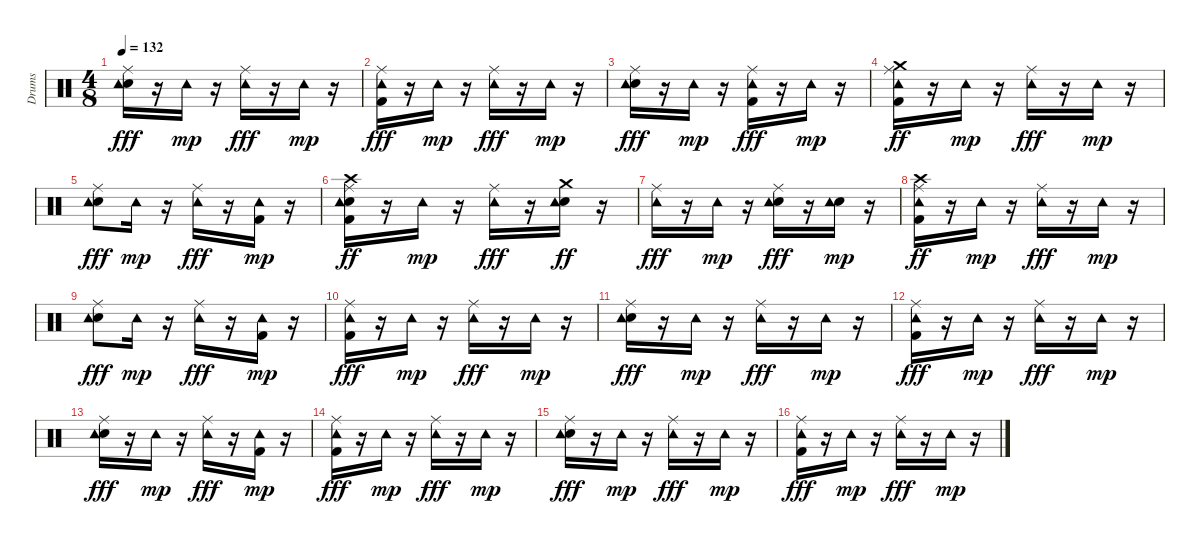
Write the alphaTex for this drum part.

\track ("Drums" "Drums") {instrument percussion}
\staff {score}
\articulation defaults
\ts (4 8)
\tempo 132
\clef neutral
\ks c
("Snare (hit) 2" "Ride (middle)" "Tambourine (hit)").16{dy fff} r.16 "Tambourine (hit)".16{dy mp} r.16 ("Ride (middle)" "Tambourine (hit)").16{dy fff} r.16 "Tambourine (hit)".16{dy mp} r.16 |
("Kick (hit) 2" "Ride (middle)" "Tambourine (hit)").16{dy fff} r.16 "Tambourine (hit)".16{dy mp} r.16 ("Ride (middle)" "Tambourine (hit)").16{dy fff} r.16 "Tambourine (hit)".16{dy mp} r.16 |
("Snare (hit) 2" "Ride (middle)" "Tambourine (hit)").16{dy fff} r.16 "Tambourine (hit)".16{dy mp} r.16 ("Kick (hit) 2" "Ride (middle)" "Tambourine (hit)").16{dy fff} r.16 "Tambourine (hit)".16{dy mp} r.16 |
("Kick (hit) 2" "Ride (middle)" "Tambourine (hit)" "Crash medium (hit)").16{dy ff} r.16 "Tambourine (hit)".16{dy mp} r.16 ("Ride (middle)" "Tambourine (hit)").16{dy fff} r.16 "Tambourine (hit)".16{dy mp} r.16 |
("Snare (hit) 2" "Ride (middle)" "Tambourine (hit)").8{dy fff} "Tambourine (hit)".16{dy mp} r.16 ("Ride (middle)" "Tambourine (hit)").16{dy fff} r.16 ("Kick (hit) 2" "Tambourine (hit)").16{dy mp} r.16 |
("Kick (hit) 2" "Snare (hit) 2" "Ride (middle)" "Tambourine (hit)" "Crash high (hit)").16{dy ff} r.16 "Tambourine (hit)".16{dy mp} r.16 ("Ride (middle)" "Tambourine (hit)").16{dy fff} r.16 ("Snare (hit) 2" "Tambourine (hit)" "Crash medium (hit)").16{dy ff} r.16 |
("Ride (middle)" "Tambourine (hit)").16{dy fff} r.16 "Tambourine (hit)".16{dy mp} r.16 ("Snare (hit) 2" "Ride (middle)" "Tambourine (hit)").16{dy fff} r.16 ("Snare (hit) 2" "Tambourine (hit)").16{dy mp} r.16 |
("Kick (hit) 2" "Ride (middle)" "Tambourine (hit)" "Crash high (hit)").16{dy ff} r.16 "Tambourine (hit)".16{dy mp} r.16 ("Ride (middle)" "Tambourine (hit)").16{dy fff} r.16 "Tambourine (hit)".16{dy mp} r.16 |
("Snare (hit) 2" "Ride (middle)" "Tambourine (hit)").8{dy fff} "Tambourine (hit)".16{dy mp} r.16 ("Ride (middle)" "Tambourine (hit)").16{dy fff} r.16 ("Kick (hit) 2" "Tambourine (hit)").16{dy mp} r.16 |
("Kick (hit) 2" "Ride (middle)" "Tambourine (hit)").16{dy fff} r.16 "Tambourine (hit)".16{dy mp} r.16 ("Ride (middle)" "Tambourine (hit)").16{dy fff} r.16 "Tambourine (hit)".16{dy mp} r.16 |
("Snare (hit) 2" "Ride (middle)" "Tambourine (hit)").16{dy fff} r.16 "Tambourine (hit)".16{dy mp} r.16 ("Ride (middle)" "Tambourine (hit)").16{dy fff} r.16 "Tambourine (hit)".16{dy mp} r.16 |
("Kick (hit) 2" "Ride (middle)" "Tambourine (hit)").16{dy fff} r.16 "Tambourine (hit)".16{dy mp} r.16 ("Ride (middle)" "Tambourine (hit)").16{dy fff} r.16 "Tambourine (hit)".16{dy mp} r.16 |
("Snare (hit) 2" "Ride (middle)" "Tambourine (hit)").16{dy fff} r.16 "Tambourine (hit)".16{dy mp} r.16 ("Ride (middle)" "Tambourine (hit)").16{dy fff} r.16 ("Kick (hit) 2" "Tambourine (hit)").16{dy mp} r.16 |
("Kick (hit) 2" "Ride (middle)" "Tambourine (hit)").16{dy fff} r.16 "Tambourine (hit)".16{dy mp} r.16 ("Ride (middle)" "Tambourine (hit)").16{dy fff} r.16 "Tambourine (hit)".16{dy mp} r.16 |
("Snare (hit) 2" "Ride (middle)" "Tambourine (hit)").16{dy fff} r.16 "Tambourine (hit)".16{dy mp} r.16 ("Ride (middle)" "Tambourine (hit)").16{dy fff} r.16 "Tambourine (hit)".16{dy mp} r.16 |
("Kick (hit) 2" "Ride (middle)" "Tambourine (hit)").16{dy fff} r.16 "Tambourine (hit)".16{dy mp} r.16 ("Ride (middle)" "Tambourine (hit)").16{dy fff} r.16 "Tambourine (hit)".16{dy mp} r.16
